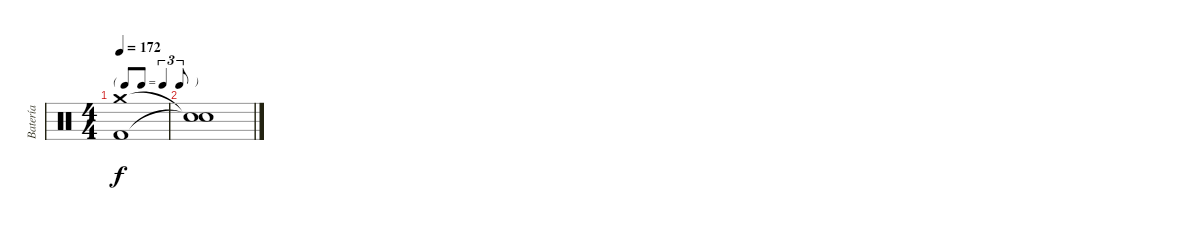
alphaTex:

\track ("Batería" "Batería") {instrument percussion}
\staff {score}
\articulation defaults
\ts (4 4)
\tf triplet8th
\tempo 172
\clef neutral
\ks c
("Kick (hit) 2" "Crash medium (hit)").1{dy f volume 10} |
("Snare (hit)"{t} "Snare (hit)"{t}).1{volume 0}
